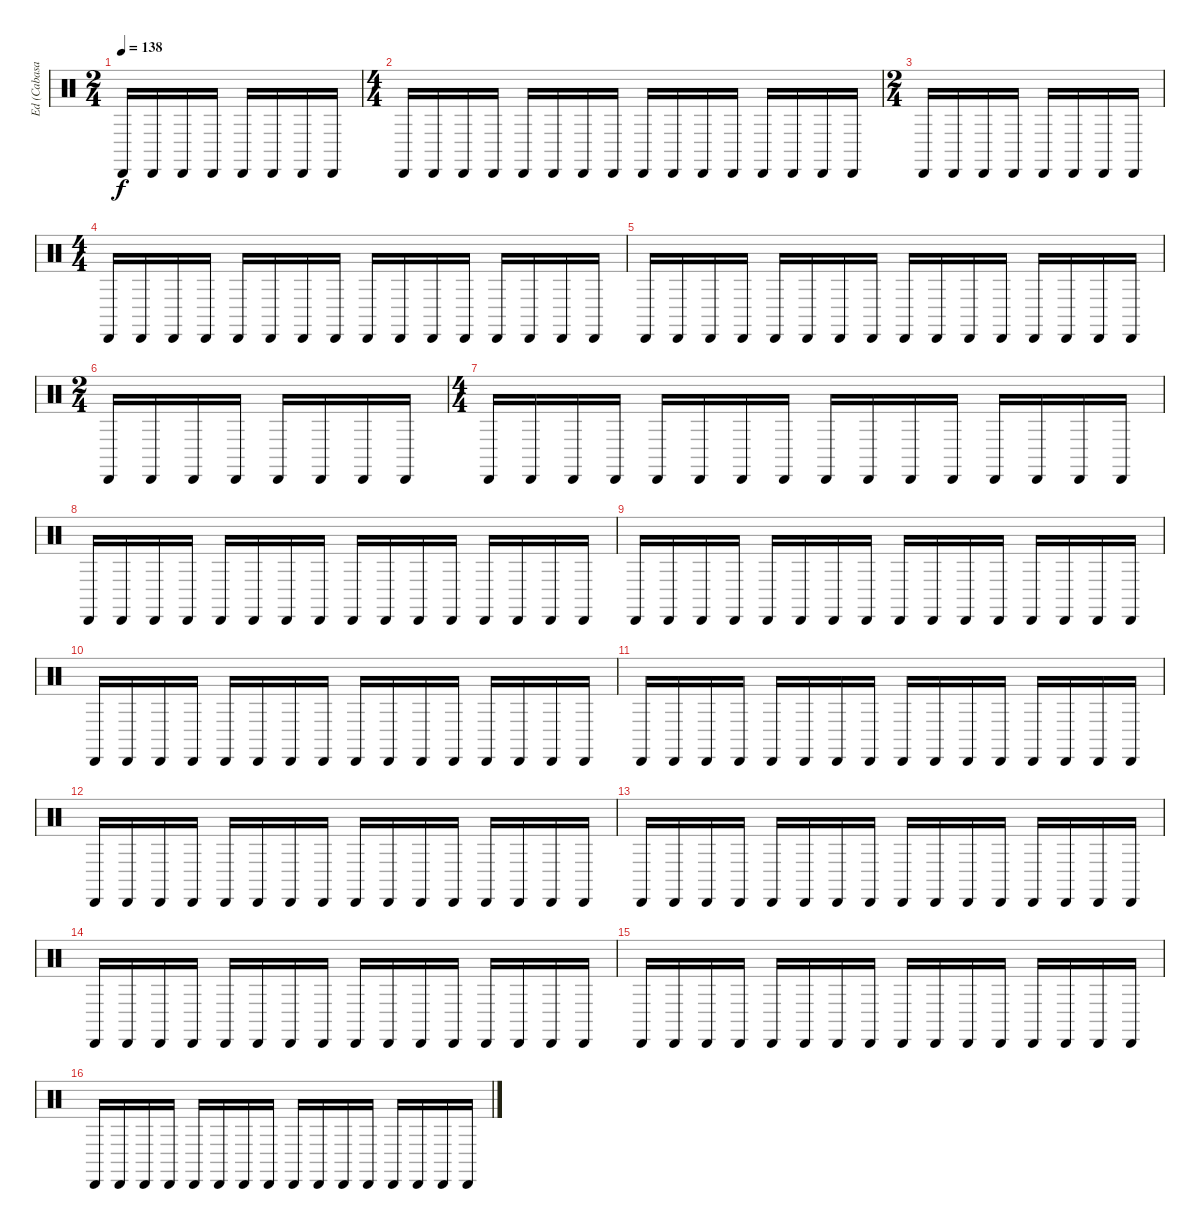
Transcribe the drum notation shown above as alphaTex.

\track ("Ed (Cabasa)" "Ed (Cabasa") {instrument percussion}
\staff {score}
\articulation defaults
\ts (2 4)
\tempo 138
\clef neutral
\ks c "Cabasa (hit)".16{dy f} "Cabasa (hit)".16 "Cabasa (hit)".16 "Cabasa (hit)".16 "Cabasa (hit)".16 "Cabasa (hit)".16 "Cabasa (hit)".16 "Cabasa (hit)".16
|
\ts (4 4)
"Cabasa (hit)".16 "Cabasa (hit)".16 "Cabasa (hit)".16 "Cabasa (hit)".16 "Cabasa (hit)".16 "Cabasa (hit)".16 "Cabasa (hit)".16 "Cabasa (hit)".16 "Cabasa (hit)".16 "Cabasa (hit)".16 "Cabasa (hit)".16 "Cabasa (hit)".16 "Cabasa (hit)".16 "Cabasa (hit)".16 "Cabasa (hit)".16 "Cabasa (hit)".16 |
\ts (2 4)
"Cabasa (hit)".16 "Cabasa (hit)".16 "Cabasa (hit)".16 "Cabasa (hit)".16 "Cabasa (hit)".16 "Cabasa (hit)".16 "Cabasa (hit)".16 "Cabasa (hit)".16 |
\ts (4 4)
"Cabasa (hit)".16 "Cabasa (hit)".16 "Cabasa (hit)".16 "Cabasa (hit)".16 "Cabasa (hit)".16 "Cabasa (hit)".16 "Cabasa (hit)".16 "Cabasa (hit)".16 "Cabasa (hit)".16 "Cabasa (hit)".16 "Cabasa (hit)".16 "Cabasa (hit)".16 "Cabasa (hit)".16 "Cabasa (hit)".16 "Cabasa (hit)".16 "Cabasa (hit)".16 |
"Cabasa (hit)".16 "Cabasa (hit)".16 "Cabasa (hit)".16 "Cabasa (hit)".16 "Cabasa (hit)".16 "Cabasa (hit)".16 "Cabasa (hit)".16 "Cabasa (hit)".16 "Cabasa (hit)".16 "Cabasa (hit)".16 "Cabasa (hit)".16 "Cabasa (hit)".16 "Cabasa (hit)".16 "Cabasa (hit)".16 "Cabasa (hit)".16 "Cabasa (hit)".16 |
\ts (2 4)
"Cabasa (hit)".16 "Cabasa (hit)".16 "Cabasa (hit)".16 "Cabasa (hit)".16 "Cabasa (hit)".16 "Cabasa (hit)".16 "Cabasa (hit)".16 "Cabasa (hit)".16 |
\ts (4 4)
"Cabasa (hit)".16 "Cabasa (hit)".16 "Cabasa (hit)".16 "Cabasa (hit)".16 "Cabasa (hit)".16 "Cabasa (hit)".16 "Cabasa (hit)".16 "Cabasa (hit)".16 "Cabasa (hit)".16 "Cabasa (hit)".16 "Cabasa (hit)".16 "Cabasa (hit)".16 "Cabasa (hit)".16 "Cabasa (hit)".16 "Cabasa (hit)".16 "Cabasa (hit)".16 |
"Cabasa (hit)".16 "Cabasa (hit)".16 "Cabasa (hit)".16 "Cabasa (hit)".16 "Cabasa (hit)".16 "Cabasa (hit)".16 "Cabasa (hit)".16 "Cabasa (hit)".16 "Cabasa (hit)".16 "Cabasa (hit)".16 "Cabasa (hit)".16 "Cabasa (hit)".16 "Cabasa (hit)".16 "Cabasa (hit)".16 "Cabasa (hit)".16 "Cabasa (hit)".16 |
"Cabasa (hit)".16 "Cabasa (hit)".16 "Cabasa (hit)".16 "Cabasa (hit)".16 "Cabasa (hit)".16 "Cabasa (hit)".16 "Cabasa (hit)".16 "Cabasa (hit)".16 "Cabasa (hit)".16 "Cabasa (hit)".16 "Cabasa (hit)".16 "Cabasa (hit)".16 "Cabasa (hit)".16 "Cabasa (hit)".16 "Cabasa (hit)".16 "Cabasa (hit)".16 |
"Cabasa (hit)".16 "Cabasa (hit)".16 "Cabasa (hit)".16 "Cabasa (hit)".16 "Cabasa (hit)".16 "Cabasa (hit)".16 "Cabasa (hit)".16 "Cabasa (hit)".16 "Cabasa (hit)".16 "Cabasa (hit)".16 "Cabasa (hit)".16 "Cabasa (hit)".16 "Cabasa (hit)".16 "Cabasa (hit)".16 "Cabasa (hit)".16 "Cabasa (hit)".16 |
"Cabasa (hit)".16 "Cabasa (hit)".16 "Cabasa (hit)".16 "Cabasa (hit)".16 "Cabasa (hit)".16 "Cabasa (hit)".16 "Cabasa (hit)".16 "Cabasa (hit)".16 "Cabasa (hit)".16 "Cabasa (hit)".16 "Cabasa (hit)".16 "Cabasa (hit)".16 "Cabasa (hit)".16 "Cabasa (hit)".16 "Cabasa (hit)".16 "Cabasa (hit)".16 |
"Cabasa (hit)".16 "Cabasa (hit)".16 "Cabasa (hit)".16 "Cabasa (hit)".16 "Cabasa (hit)".16 "Cabasa (hit)".16 "Cabasa (hit)".16 "Cabasa (hit)".16 "Cabasa (hit)".16 "Cabasa (hit)".16 "Cabasa (hit)".16 "Cabasa (hit)".16 "Cabasa (hit)".16 "Cabasa (hit)".16 "Cabasa (hit)".16 "Cabasa (hit)".16 |
"Cabasa (hit)".16 "Cabasa (hit)".16 "Cabasa (hit)".16 "Cabasa (hit)".16 "Cabasa (hit)".16 "Cabasa (hit)".16 "Cabasa (hit)".16 "Cabasa (hit)".16 "Cabasa (hit)".16 "Cabasa (hit)".16 "Cabasa (hit)".16 "Cabasa (hit)".16 "Cabasa (hit)".16 "Cabasa (hit)".16 "Cabasa (hit)".16 "Cabasa (hit)".16 |
"Cabasa (hit)".16 "Cabasa (hit)".16 "Cabasa (hit)".16 "Cabasa (hit)".16 "Cabasa (hit)".16 "Cabasa (hit)".16 "Cabasa (hit)".16 "Cabasa (hit)".16 "Cabasa (hit)".16 "Cabasa (hit)".16 "Cabasa (hit)".16 "Cabasa (hit)".16 "Cabasa (hit)".16 "Cabasa (hit)".16 "Cabasa (hit)".16 "Cabasa (hit)".16 |
"Cabasa (hit)".16 "Cabasa (hit)".16 "Cabasa (hit)".16 "Cabasa (hit)".16 "Cabasa (hit)".16 "Cabasa (hit)".16 "Cabasa (hit)".16 "Cabasa (hit)".16 "Cabasa (hit)".16 "Cabasa (hit)".16 "Cabasa (hit)".16 "Cabasa (hit)".16 "Cabasa (hit)".16 "Cabasa (hit)".16 "Cabasa (hit)".16 "Cabasa (hit)".16 |
"Cabasa (hit)".16 "Cabasa (hit)".16 "Cabasa (hit)".16 "Cabasa (hit)".16 "Cabasa (hit)".16 "Cabasa (hit)".16 "Cabasa (hit)".16 "Cabasa (hit)".16 "Cabasa (hit)".16 "Cabasa (hit)".16 "Cabasa (hit)".16 "Cabasa (hit)".16 "Cabasa (hit)".16 "Cabasa (hit)".16 "Cabasa (hit)".16 "Cabasa (hit)".16
